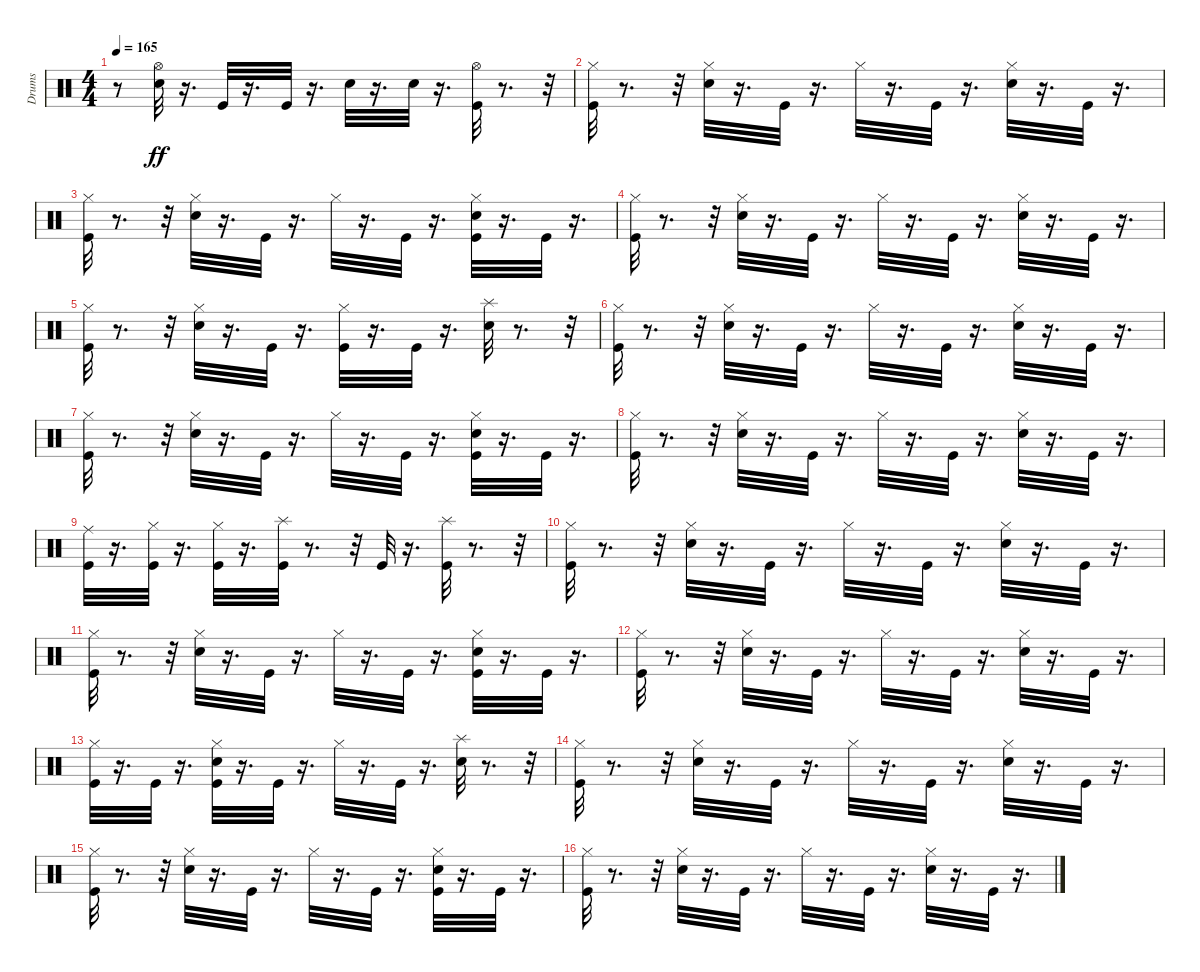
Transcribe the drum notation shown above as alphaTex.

\track ("Drums" "Drums") {instrument percussion}
\staff {score}
\articulation defaults
\ts (4 4)
\tempo 165
\clef neutral
\ks c
r.8{dy ff} ("Hi-Hat (open)" "Electric Snare (hit)").32 r.16{d} "Kick (hit)".32 r.16{d} "Kick (hit)".32 r.16{d} "Electric Snare (hit)".32 r.16{d} "Electric Snare (hit)".32 r.16{d} ("Hi-Hat (open)" "Kick (hit)").32 r.8{d} r.32 |
("Hi-Hat (closed)" "Kick (hit)").32 r.8{d} r.32 ("Hi-Hat (closed)" "Electric Snare (hit)").32 r.16{d} "Kick (hit)".32 r.16{d} "Hi-Hat (closed)".32 r.16{d} "Kick (hit)".32 r.16{d} ("Hi-Hat (closed)" "Electric Snare (hit)").32 r.16{d} "Kick (hit)".32 r.16{d} |
("Hi-Hat (closed)" "Kick (hit)").32 r.8{d} r.32 ("Hi-Hat (closed)" "Electric Snare (hit)").32 r.16{d} "Kick (hit)".32 r.16{d} "Hi-Hat (closed)".32 r.16{d} "Kick (hit)".32 r.16{d} ("Hi-Hat (closed)" "Electric Snare (hit)" "Kick (hit)").32 r.16{d} "Kick (hit)".32 r.16{d} |
("Hi-Hat (closed)" "Kick (hit)").32 r.8{d} r.32 ("Hi-Hat (closed)" "Electric Snare (hit)").32 r.16{d} "Kick (hit)".32 r.16{d} "Hi-Hat (closed)".32 r.16{d} "Kick (hit)".32 r.16{d} ("Hi-Hat (closed)" "Electric Snare (hit)").32 r.16{d} "Kick (hit)".32 r.16{d} |
("Hi-Hat (closed)" "Kick (hit)").32 r.8{d} r.32 ("Hi-Hat (closed)" "Electric Snare (hit)").32 r.16{d} "Kick (hit)".32 r.16{d} ("Kick (hit)" "Hi-Hat (closed)").32 r.16{d} "Kick (hit)".32 r.16{d} ("Splash (hit)" "Electric Snare (hit)").32 r.8{d} r.32 |
("Hi-Hat (closed)" "Kick (hit)").32 r.8{d} r.32 ("Hi-Hat (closed)" "Electric Snare (hit)").32 r.16{d} "Kick (hit)".32 r.16{d} "Hi-Hat (closed)".32 r.16{d} "Kick (hit)".32 r.16{d} ("Hi-Hat (closed)" "Electric Snare (hit)").32 r.16{d} "Kick (hit)".32 r.16{d} |
("Hi-Hat (closed)" "Kick (hit)").32 r.8{d} r.32 ("Hi-Hat (closed)" "Electric Snare (hit)").32 r.16{d} "Kick (hit)".32 r.16{d} "Hi-Hat (closed)".32 r.16{d} "Kick (hit)".32 r.16{d} ("Hi-Hat (closed)" "Electric Snare (hit)" "Kick (hit)").32 r.16{d} "Kick (hit)".32 r.16{d} |
("Hi-Hat (closed)" "Kick (hit)").32 r.8{d} r.32 ("Hi-Hat (closed)" "Electric Snare (hit)").32 r.16{d} "Kick (hit)".32 r.16{d} "Hi-Hat (closed)".32 r.16{d} "Kick (hit)".32 r.16{d} ("Hi-Hat (closed)" "Electric Snare (hit)").32 r.16{d} "Kick (hit)".32 r.16{d} |
("Ride (middle)" "Kick (hit)").32 r.16{d} ("Kick (hit)" "Hi-Hat (closed)").32 r.16{d} ("Kick (hit)" "Hi-Hat (closed)").32 r.16{d} ("Splash (hit)" "Kick (hit)").32 r.8{d} r.32 "Kick (hit)".32 r.16{d} ("Splash (hit)" "Kick (hit)").32 r.8{d} r.32 |
("Hi-Hat (closed)" "Kick (hit)").32 r.8{d} r.32 ("Hi-Hat (closed)" "Electric Snare (hit)").32 r.16{d} "Kick (hit)".32 r.16{d} "Hi-Hat (closed)".32 r.16{d} "Kick (hit)".32 r.16{d} ("Hi-Hat (closed)" "Electric Snare (hit)").32 r.16{d} "Kick (hit)".32 r.16{d} |
("Hi-Hat (closed)" "Kick (hit)").32 r.8{d} r.32 ("Hi-Hat (closed)" "Electric Snare (hit)").32 r.16{d} "Kick (hit)".32 r.16{d} "Hi-Hat (closed)".32 r.16{d} "Kick (hit)".32 r.16{d} ("Hi-Hat (closed)" "Electric Snare (hit)" "Kick (hit)").32 r.16{d} "Kick (hit)".32 r.16{d} |
("Hi-Hat (closed)" "Kick (hit)").32 r.8{d} r.32 ("Hi-Hat (closed)" "Electric Snare (hit)").32 r.16{d} "Kick (hit)".32 r.16{d} "Hi-Hat (closed)".32 r.16{d} "Kick (hit)".32 r.16{d} ("Hi-Hat (closed)" "Electric Snare (hit)").32 r.16{d} "Kick (hit)".32 r.16{d} |
("Hi-Hat (closed)" "Kick (hit)").32 r.16{d} "Kick (hit)".32 r.16{d} ("Kick (hit)" "Hi-Hat (closed)" "Electric Snare (hit)").32 r.16{d} "Kick (hit)".32 r.16{d} "Hi-Hat (closed)".32 r.16{d} "Kick (hit)".32 r.16{d} ("Splash (hit)" "Electric Snare (hit)").32 r.8{d} r.32 |
("Hi-Hat (closed)" "Kick (hit)").32 r.8{d} r.32 ("Electric Snare (hit)" "Hi-Hat (closed)").32 r.16{d} "Kick (hit)".32 r.16{d} "Hi-Hat (closed)".32 r.16{d} "Kick (hit)".32 r.16{d} ("Electric Snare (hit)" "Hi-Hat (closed)").32 r.16{d} "Kick (hit)".32 r.16{d} |
("Hi-Hat (closed)" "Kick (hit)").32 r.8{d} r.32 ("Electric Snare (hit)" "Hi-Hat (closed)").32 r.16{d} "Kick (hit)".32 r.16{d} "Hi-Hat (closed)".32 r.16{d} "Kick (hit)".32 r.16{d} ("Electric Snare (hit)" "Kick (hit)" "Hi-Hat (closed)").32 r.16{d} "Kick (hit)".32 r.16{d} |
("Hi-Hat (closed)" "Kick (hit)").32 r.8{d} r.32 ("Electric Snare (hit)" "Hi-Hat (closed)").32 r.16{d} "Kick (hit)".32 r.16{d} "Hi-Hat (closed)".32 r.16{d} "Kick (hit)".32 r.16{d} ("Electric Snare (hit)" "Hi-Hat (closed)").32 r.16{d} "Kick (hit)".32 r.16{d}
